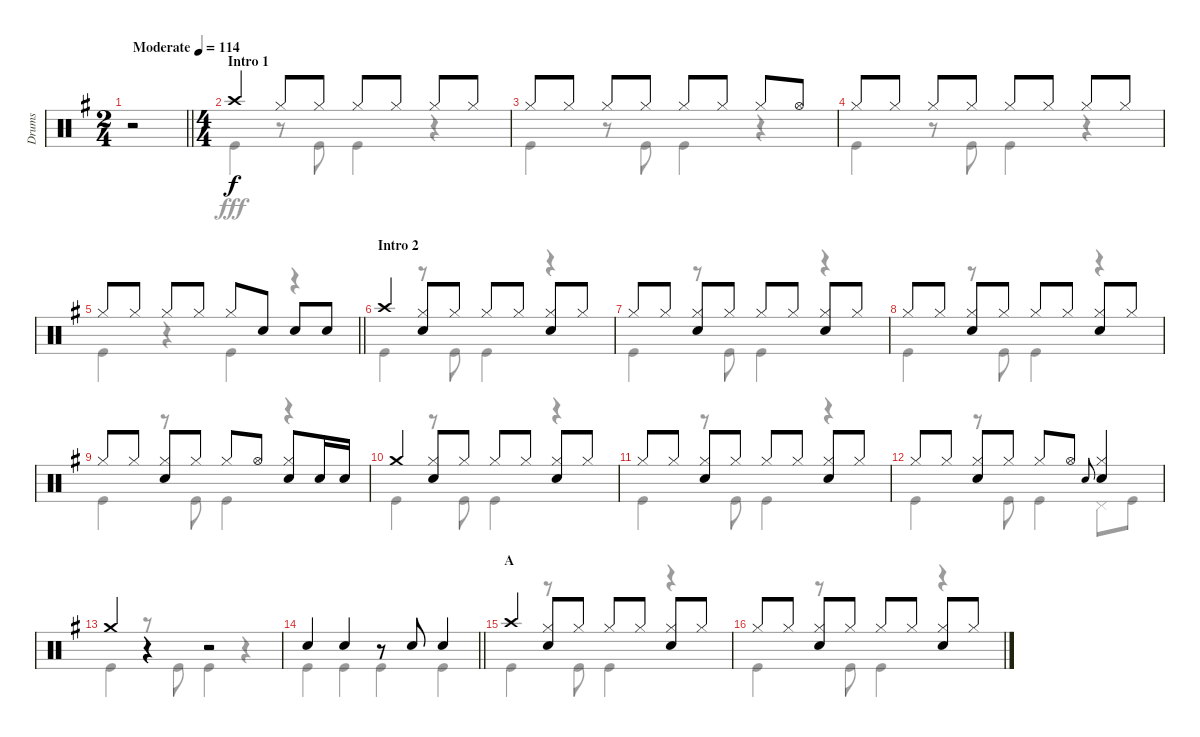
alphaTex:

\track ("Drums" "Drums") {instrument percussion}
\staff {score}
\articulation defaults
\voice
\ts (2 4)
\tempo (114 "Moderate")
\clef neutral
\barLineRight lightlight
\ks g
r.2{dy f} |
\ts (4 4)
\section ("" "Intro 1")
"Crash high (hit)".4 "Hi-Hat (closed)".8 "Hi-Hat (closed)".8 "Hi-Hat (closed)".8 "Hi-Hat (closed)".8 "Hi-Hat (closed)".8 "Hi-Hat (closed)".8 |
"Hi-Hat (closed)".8 "Hi-Hat (closed)".8 "Hi-Hat (closed)".8 "Hi-Hat (closed)".8 "Hi-Hat (closed)".8 "Hi-Hat (closed)".8 "Hi-Hat (closed)".8 "Hi-Hat (open)".8 |
"Hi-Hat (closed)".8 "Hi-Hat (closed)".8 "Hi-Hat (closed)".8 "Hi-Hat (closed)".8 "Hi-Hat (closed)".8 "Hi-Hat (closed)".8 "Hi-Hat (closed)".8 "Hi-Hat (closed)".8 |
\barLineRight lightlight "Hi-Hat (closed)".8 "Hi-Hat (closed)".8 "Hi-Hat (closed)".8 "Hi-Hat (closed)".8 "Hi-Hat (closed)".8 "Snare (hit) 2".8 "Snare (hit) 2".8 "Snare (hit) 2".8
|
\section ("" "Intro 2")
"Crash high (hit)".4 ("Hi-Hat (closed)" "Snare (hit) 2").8 "Hi-Hat (closed)".8 "Hi-Hat (closed)".8 "Hi-Hat (closed)".8 ("Hi-Hat (closed)" "Snare (hit) 2").8 "Hi-Hat (closed)".8 |
"Hi-Hat (closed)".8 "Hi-Hat (closed)".8 ("Hi-Hat (closed)" "Snare (hit) 2").8 "Hi-Hat (closed)".8 "Hi-Hat (closed)".8 "Hi-Hat (closed)".8 ("Hi-Hat (closed)" "Snare (hit) 2").8 "Hi-Hat (closed)".8 |
"Hi-Hat (closed)".8 "Hi-Hat (closed)".8 ("Hi-Hat (closed)" "Snare (hit) 2").8 "Hi-Hat (closed)".8 "Hi-Hat (closed)".8 "Hi-Hat (closed)".8 ("Hi-Hat (closed)" "Snare (hit) 2").8 "Hi-Hat (closed)".8 |
"Hi-Hat (closed)".8 "Hi-Hat (closed)".8 ("Hi-Hat (closed)" "Snare (hit) 2").8 "Hi-Hat (closed)".8 "Hi-Hat (closed)".8 "Hi-Hat (open)".8 ("Hi-Hat (closed)" "Snare (hit) 2").8 "Snare (hit) 2".16 "Snare (hit) 2".16 |
"Crash medium (hit)".4 ("Hi-Hat (closed)" "Snare (hit) 2").8 "Hi-Hat (closed)".8 "Hi-Hat (closed)".8 "Hi-Hat (closed)".8 ("Hi-Hat (closed)" "Snare (hit) 2").8 "Hi-Hat (closed)".8 |
"Hi-Hat (closed)".8 "Hi-Hat (closed)".8 ("Hi-Hat (closed)" "Snare (hit) 2").8 "Hi-Hat (closed)".8 "Hi-Hat (closed)".8 "Hi-Hat (closed)".8 ("Hi-Hat (closed)" "Snare (hit) 2").8 "Hi-Hat (closed)".8 |
"Hi-Hat (closed)".8 "Hi-Hat (closed)".8 ("Hi-Hat (closed)" "Snare (hit) 2").8 "Hi-Hat (closed)".8 "Hi-Hat (closed)".8 "Hi-Hat (open)".8 "Snare (hit) 2".8{gr onbeat} ("Hi-Hat (closed)" "Snare (hit) 2").4 |
"Crash medium (hit)".4 r.4 r.2 |
\barLineRight lightlight "Snare (hit) 2".4 "Snare (hit) 2".4
r.8 "Snare (hit) 2".8 "Snare (hit) 2".4 |
\section ("" "A")
"Crash high (hit)".4 ("Hi-Hat (closed)" "Snare (hit) 2").8 "Hi-Hat (closed)".8 "Hi-Hat (closed)".8 "Hi-Hat (closed)".8 ("Hi-Hat (closed)" "Snare (hit) 2").8 "Hi-Hat (closed)".8 |
"Hi-Hat (closed)".8 "Hi-Hat (closed)".8 ("Hi-Hat (closed)" "Snare (hit) 2").8 "Hi-Hat (closed)".8 "Hi-Hat (closed)".8 "Hi-Hat (closed)".8 ("Hi-Hat (closed)" "Snare (hit) 2").8 "Hi-Hat (closed)".8
\voice
\clef neutral
\ottava regular
\simile none
\barLineRight lightlight
\ks g
r.2{dy fff} |
"Kick (hit)".4 r.8 "Kick (hit)".8 "Kick (hit)".4 r.4 |
"Kick (hit)".4 r.8 "Kick (hit)".8 "Kick (hit)".4 r.4 |
"Kick (hit)".4 r.8 "Kick (hit)".8 "Kick (hit)".4 r.4 |
\barLineRight lightlight "Kick (hit)".4
r.4 "Kick (hit)".4 r.4 |
"Kick (hit)".4 r.8 "Kick (hit)".8 "Kick (hit)".4 r.4 |
"Kick (hit)".4 r.8 "Kick (hit)".8 "Kick (hit)".4 r.4 |
"Kick (hit)".4 r.8 "Kick (hit)".8 "Kick (hit)".4 r.4 |
"Kick (hit)".4 r.8 "Kick (hit)".8 "Kick (hit)".4 r.4 |
"Kick (hit)".4 r.8 "Kick (hit)".8 "Kick (hit)".4 r.4 |
"Kick (hit)".4 r.8 "Kick (hit)".8 "Kick (hit)".4 r.4 |
"Kick (hit)".4 r.8 "Kick (hit)".8 "Kick (hit)".4 "Pedal Hi-Hat (hit)".8 "Kick (hit)".8 |
"Kick (hit)".4 r.8 "Kick (hit)".8 "Kick (hit)".4 r.4 |
\barLineRight lightlight "Kick (hit)".4 "Kick (hit)".4 "Kick (hit)".4 "Kick (hit)".4
|
"Kick (hit)".4 r.8 "Kick (hit)".8 "Kick (hit)".4 r.4 |
"Kick (hit)".4 r.8 "Kick (hit)".8 "Kick (hit)".4 r.4
